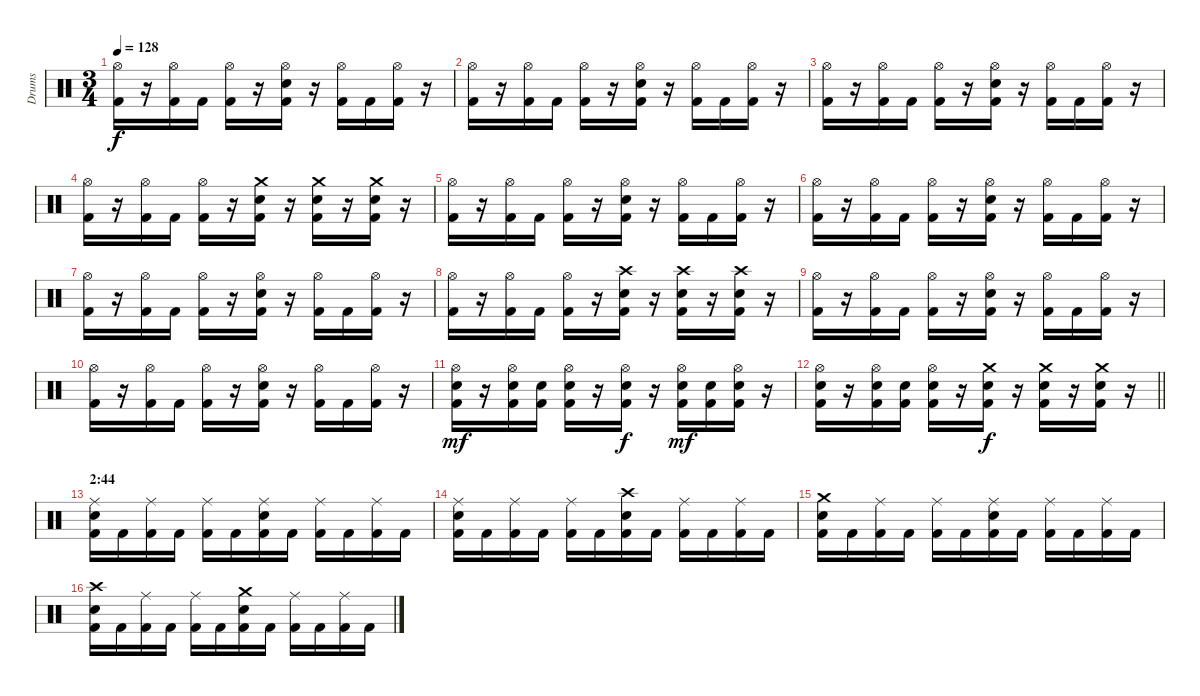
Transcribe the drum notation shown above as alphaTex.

\track ("Drums" "Drums") {instrument percussion}
\staff {score}
\articulation defaults
\ts (3 4)
\tempo 128
\clef neutral
\ks c
("Hi-Hat (open)" "Kick (hit) 2").16{dy f} r.16 ("Hi-Hat (open)" "Kick (hit) 2").16 "Kick (hit) 2".16 ("Hi-Hat (open)" "Kick (hit) 2").16 r.16 ("Hi-Hat (open)" "Snare (hit) 2" "Kick (hit) 2").16 r.16 ("Hi-Hat (open)" "Kick (hit) 2").16 "Kick (hit) 2".16 ("Hi-Hat (open)" "Kick (hit) 2").16 r.16 |
("Hi-Hat (open)" "Kick (hit) 2").16 r.16 ("Hi-Hat (open)" "Kick (hit) 2").16 "Kick (hit) 2".16 ("Hi-Hat (open)" "Kick (hit) 2").16 r.16 ("Hi-Hat (open)" "Snare (hit) 2" "Kick (hit) 2").16 r.16 ("Hi-Hat (open)" "Kick (hit) 2").16 "Kick (hit) 2".16 ("Hi-Hat (open)" "Kick (hit) 2").16 r.16 |
("Hi-Hat (open)" "Kick (hit) 2").16 r.16 ("Hi-Hat (open)" "Kick (hit) 2").16 "Kick (hit) 2".16 ("Hi-Hat (open)" "Kick (hit) 2").16 r.16 ("Hi-Hat (open)" "Snare (hit) 2" "Kick (hit) 2").16 r.16 ("Hi-Hat (open)" "Kick (hit) 2").16 "Kick (hit) 2".16 ("Hi-Hat (open)" "Kick (hit) 2").16 r.16 |
("Hi-Hat (open)" "Kick (hit) 2").16 r.16 ("Hi-Hat (open)" "Kick (hit) 2").16 "Kick (hit) 2".16 ("Hi-Hat (open)" "Kick (hit) 2").16 r.16 ("Crash medium (hit)" "Snare (hit) 2" "Kick (hit) 2").16 r.16 ("Crash medium (hit)" "Snare (hit) 2" "Kick (hit) 2").16 r.16 ("Crash medium (hit)" "Snare (hit) 2" "Kick (hit) 2").16 r.16 |
("Hi-Hat (open)" "Kick (hit) 2").16 r.16 ("Hi-Hat (open)" "Kick (hit) 2").16 "Kick (hit) 2".16 ("Hi-Hat (open)" "Kick (hit) 2").16 r.16 ("Hi-Hat (open)" "Snare (hit) 2" "Kick (hit) 2").16 r.16 ("Hi-Hat (open)" "Kick (hit) 2").16 "Kick (hit) 2".16 ("Hi-Hat (open)" "Kick (hit) 2").16 r.16 |
("Hi-Hat (open)" "Kick (hit) 2").16 r.16 ("Hi-Hat (open)" "Kick (hit) 2").16 "Kick (hit) 2".16 ("Hi-Hat (open)" "Kick (hit) 2").16 r.16 ("Hi-Hat (open)" "Snare (hit) 2" "Kick (hit) 2").16 r.16 ("Hi-Hat (open)" "Kick (hit) 2").16 "Kick (hit) 2".16 ("Hi-Hat (open)" "Kick (hit) 2").16 r.16 |
("Hi-Hat (open)" "Kick (hit) 2").16 r.16 ("Hi-Hat (open)" "Kick (hit) 2").16 "Kick (hit) 2".16 ("Hi-Hat (open)" "Kick (hit) 2").16 r.16 ("Hi-Hat (open)" "Snare (hit) 2" "Kick (hit) 2").16 r.16 ("Hi-Hat (open)" "Kick (hit) 2").16 "Kick (hit) 2".16 ("Hi-Hat (open)" "Kick (hit) 2").16 r.16 |
("Hi-Hat (open)" "Kick (hit) 2").16 r.16 ("Hi-Hat (open)" "Kick (hit) 2").16 "Kick (hit) 2".16 ("Hi-Hat (open)" "Kick (hit) 2").16 r.16 ("Crash high (hit)" "Snare (hit) 2" "Kick (hit) 2").16 r.16 ("Crash high (hit)" "Snare (hit) 2" "Kick (hit) 2").16 r.16 ("Crash high (hit)" "Snare (hit) 2" "Kick (hit) 2").16 r.16 |
("Hi-Hat (open)" "Kick (hit) 2").16 r.16 ("Hi-Hat (open)" "Kick (hit) 2").16 "Kick (hit) 2".16 ("Hi-Hat (open)" "Kick (hit) 2").16 r.16 ("Hi-Hat (open)" "Snare (hit) 2" "Kick (hit) 2").16 r.16 ("Hi-Hat (open)" "Kick (hit) 2").16 "Kick (hit) 2".16 ("Hi-Hat (open)" "Kick (hit) 2").16 r.16 |
("Hi-Hat (open)" "Kick (hit) 2").16 r.16 ("Hi-Hat (open)" "Kick (hit) 2").16 "Kick (hit) 2".16 ("Hi-Hat (open)" "Kick (hit) 2").16 r.16 ("Hi-Hat (open)" "Snare (hit) 2" "Kick (hit) 2").16 r.16 ("Hi-Hat (open)" "Kick (hit) 2").16 "Kick (hit) 2".16 ("Hi-Hat (open)" "Kick (hit) 2").16 r.16 |
("Hi-Hat (open)" "Snare (hit) 2" "Kick (hit) 2").16{dy mf} r.16 ("Hi-Hat (open)" "Snare (hit) 2" "Kick (hit) 2").16 ("Snare (hit) 2" "Kick (hit) 2").16 ("Hi-Hat (open)" "Snare (hit) 2" "Kick (hit) 2").16 r.16 ("Hi-Hat (open)" "Snare (hit) 2" "Kick (hit) 2").16{dy f} r.16 ("Hi-Hat (open)" "Snare (hit) 2" "Kick (hit) 2").16{dy mf} ("Snare (hit) 2" "Kick (hit) 2").16 ("Hi-Hat (open)" "Snare (hit) 2" "Kick (hit) 2").16 r.16 |
\barLineRight lightlight
("Hi-Hat (open)" "Snare (hit) 2" "Kick (hit) 2").16 r.16 ("Hi-Hat (open)" "Snare (hit) 2" "Kick (hit) 2").16 ("Snare (hit) 2" "Kick (hit) 2").16 ("Hi-Hat (open)" "Snare (hit) 2" "Kick (hit) 2").16 r.16 ("Crash medium (hit)" "Snare (hit) 2" "Kick (hit) 2").16{dy f} r.16 ("Crash medium (hit)" "Snare (hit) 2" "Kick (hit) 2").16 r.16 ("Crash medium (hit)" "Snare (hit) 2" "Kick (hit) 2").16 r.16 |
\section ("" "2:44")
("Ride (middle)" "Snare (hit) 2" "Kick (hit) 2").16 "Kick (hit) 2".16 ("Ride (middle)" "Kick (hit) 2").16 "Kick (hit) 2".16 ("Ride (middle)" "Kick (hit) 2").16 "Kick (hit) 2".16 ("Ride (middle)" "Snare (hit) 2" "Kick (hit) 2").16 "Kick (hit) 2".16 ("Ride (middle)" "Kick (hit) 2").16 "Kick (hit) 2".16 ("Ride (middle)" "Kick (hit) 2").16 "Kick (hit) 2".16 |
("Ride (middle)" "Snare (hit) 2" "Kick (hit) 2").16 "Kick (hit) 2".16 ("Ride (middle)" "Kick (hit) 2").16 "Kick (hit) 2".16 ("Ride (middle)" "Kick (hit) 2").16 "Kick (hit) 2".16 ("Crash high (hit)" "Snare (hit) 2" "Kick (hit) 2").16 "Kick (hit) 2".16 ("Ride (middle)" "Kick (hit) 2").16 "Kick (hit) 2".16 ("Ride (middle)" "Kick (hit) 2").16 "Kick (hit) 2".16 |
("Crash medium (hit)" "Snare (hit) 2" "Kick (hit) 2").16 "Kick (hit) 2".16 ("Ride (middle)" "Kick (hit) 2").16 "Kick (hit) 2".16 ("Ride (middle)" "Kick (hit) 2").16 "Kick (hit) 2".16 ("Ride (middle)" "Snare (hit) 2" "Kick (hit) 2").16 "Kick (hit) 2".16 ("Ride (middle)" "Kick (hit) 2").16 "Kick (hit) 2".16 ("Ride (middle)" "Kick (hit) 2").16 "Kick (hit) 2".16 |
("Crash high (hit)" "Snare (hit) 2" "Kick (hit) 2").16 "Kick (hit) 2".16 ("Ride (middle)" "Kick (hit) 2").16 "Kick (hit) 2".16 ("Ride (middle)" "Kick (hit) 2").16 "Kick (hit) 2".16 ("Crash medium (hit)" "Snare (hit) 2" "Kick (hit) 2").16 "Kick (hit) 2".16 ("Ride (middle)" "Kick (hit) 2").16 "Kick (hit) 2".16 ("Ride (middle)" "Kick (hit) 2").16 "Kick (hit) 2".16
